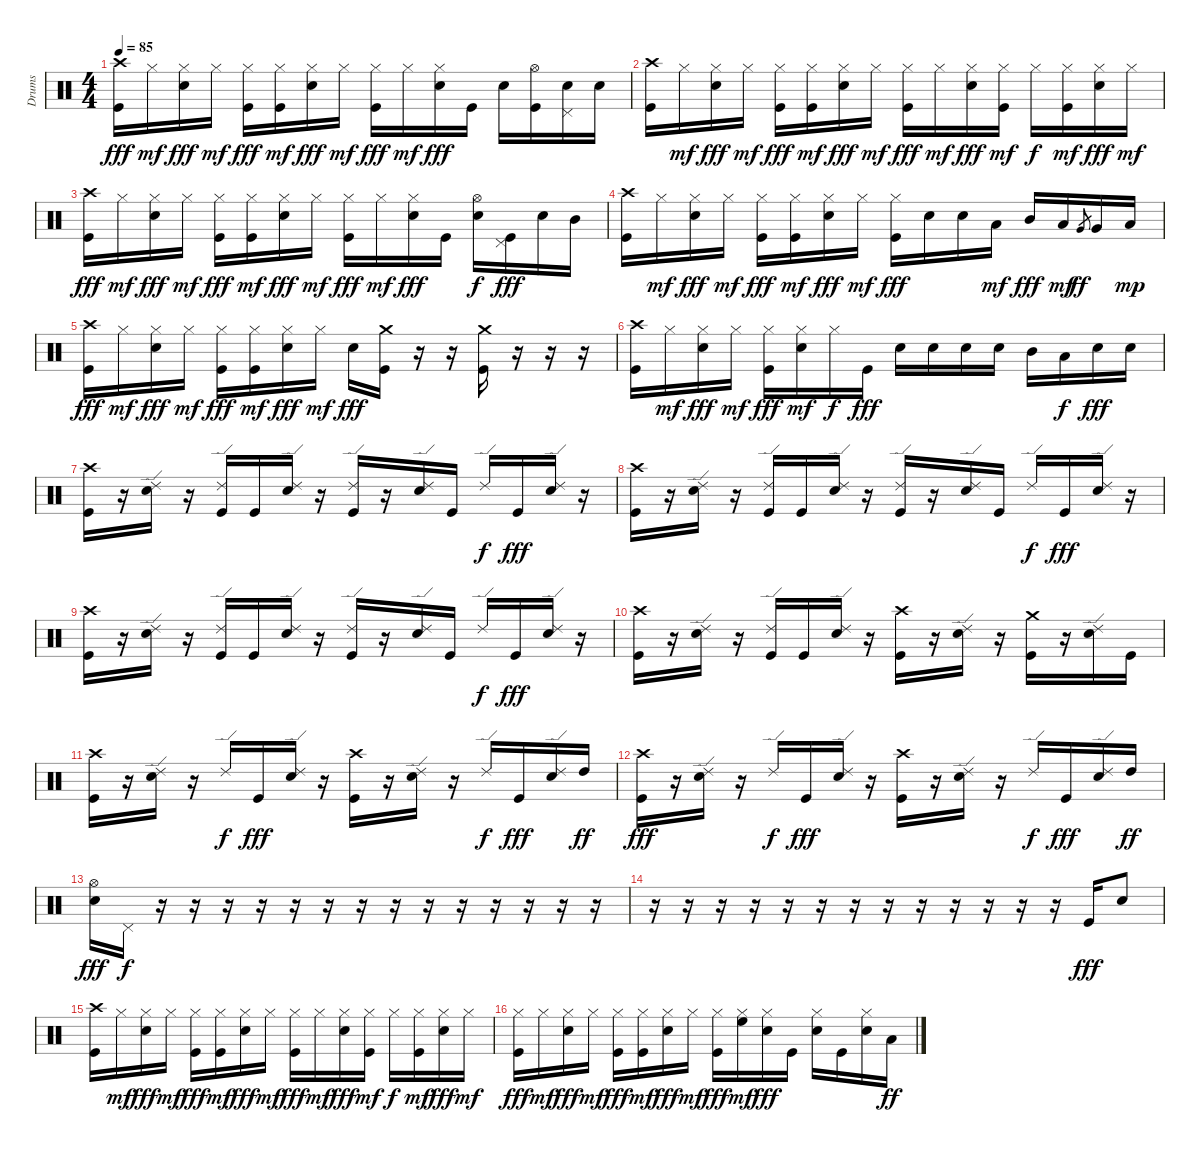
\track ("Drums" "Drums") {instrument percussion}
\staff {score}
\articulation defaults
\ts (4 4)
\tempo 85
\clef neutral
\ks c
("Kick (hit)" "Crash high (hit)").16{dy fff} "Hi-Hat (closed)".16{dy mf} ("Electric Snare (hit)" "Hi-Hat (closed)").16{dy fff} "Hi-Hat (closed)".16{dy mf} ("Kick (hit)" "Hi-Hat (closed)").16{dy fff} ("Kick (hit)" "Hi-Hat (closed)").16{dy mf} ("Electric Snare (hit)" "Hi-Hat (closed)").16{dy fff} "Hi-Hat (closed)".16{dy mf} ("Kick (hit)" "Hi-Hat (closed)").16{dy fff} "Hi-Hat (closed)".16{dy mf} ("Electric Snare (hit)" "Hi-Hat (closed)").16{dy fff} "Kick (hit)".16 "Electric Snare (hit)".16 ("Kick (hit)" "Hi-Hat (open)").16 ("Electric Snare (hit)" "Pedal Hi-Hat (hit)").16 "Electric Snare (hit)".16 |
("Kick (hit)" "Crash high (hit)").16 "Hi-Hat (closed)".16{dy mf} ("Electric Snare (hit)" "Hi-Hat (closed)").16{dy fff} "Hi-Hat (closed)".16{dy mf} ("Kick (hit)" "Hi-Hat (closed)").16{dy fff} ("Kick (hit)" "Hi-Hat (closed)").16{dy mf} ("Electric Snare (hit)" "Hi-Hat (closed)").16{dy fff} "Hi-Hat (closed)".16{dy mf} ("Kick (hit)" "Hi-Hat (closed)").16{dy fff} "Hi-Hat (closed)".16{dy mf} ("Electric Snare (hit)" "Hi-Hat (closed)").16{dy fff} ("Kick (hit)" "Hi-Hat (closed)").16{dy mf} "Hi-Hat (closed)".16{dy f} ("Kick (hit)" "Hi-Hat (closed)").16{dy mf} ("Electric Snare (hit)" "Hi-Hat (closed)").16{dy fff} "Hi-Hat (closed)".16{dy mf} |
("Kick (hit)" "Crash high (hit)").16{dy fff} "Hi-Hat (closed)".16{dy mf} ("Electric Snare (hit)" "Hi-Hat (closed)").16{dy fff} "Hi-Hat (closed)".16{dy mf} ("Kick (hit)" "Hi-Hat (closed)").16{dy fff} ("Kick (hit)" "Hi-Hat (closed)").16{dy mf} ("Electric Snare (hit)" "Hi-Hat (closed)").16{dy fff} "Hi-Hat (closed)".16{dy mf} ("Kick (hit)" "Hi-Hat (closed)").16{dy fff} "Hi-Hat (closed)".16{dy mf} ("Electric Snare (hit)" "Hi-Hat (closed)").16{dy fff} "Kick (hit)".16 ("Electric Snare (hit)" "Hi-Hat (open)").16{dy f} ("Kick (hit)" "Pedal Hi-Hat (hit)").16{dy fff} "Electric Snare (hit)".16 "Mid Tom (hit)".16 |
("Kick (hit)" "Crash high (hit)").16 "Hi-Hat (closed)".16{dy mf} ("Electric Snare (hit)" "Hi-Hat (closed)").16{dy fff} "Hi-Hat (closed)".16{dy mf} ("Kick (hit)" "Hi-Hat (closed)").16{dy fff} ("Kick (hit)" "Hi-Hat (closed)").16{dy mf} ("Electric Snare (hit)" "Hi-Hat (closed)").16{dy fff} "Hi-Hat (closed)".16{dy mf} ("Kick (hit)" "Hi-Hat (closed)").16{dy fff} "Electric Snare (hit)".16 "Electric Snare (hit)".16 "Low Tom (hit)".16{dy mf} "Mid Tom (hit)".16{dy fff} "Low Tom (hit)".16{dy mf} "Very Low Tom (hit)".8{gr dy ff} "Very Low Tom (hit)".16 "Low Floor Tom (hit)".16{dy mp} |
("Kick (hit)" "Crash high (hit)").16{dy fff} "Hi-Hat (closed)".16{dy mf} ("Electric Snare (hit)" "Hi-Hat (closed)").16{dy fff} "Hi-Hat (closed)".16{dy mf} ("Kick (hit)" "Hi-Hat (closed)").16{dy fff} ("Kick (hit)" "Hi-Hat (closed)").16{dy mf} ("Electric Snare (hit)" "Hi-Hat (closed)").16{dy fff} "Hi-Hat (closed)".16{dy mf} "Electric Snare (hit)".16{dy fff} ("Kick (hit)" "Crash medium (hit)").16 r.16 r.16 ("Kick (hit)" "Crash medium (hit)").16 r.16 r.16 r.16 |
("Kick (hit)" "Crash high (hit)").16 "Hi-Hat (closed)".16{dy mf} ("Electric Snare (hit)" "Hi-Hat (closed)").16{dy fff} "Hi-Hat (closed)".16{dy mf} ("Kick (hit)" "Hi-Hat (closed)").16{dy fff} ("Electric Snare (hit)" "Hi-Hat (closed)").16{dy mf} "Hi-Hat (closed)".16{dy f} "Kick (hit)".16{dy fff} "Electric Snare (hit)".16 "Electric Snare (hit)".16 "Electric Snare (hit)".16 "Electric Snare (hit)".16 "Mid Tom (hit)".16 "Low Floor Tom (hit)".16{dy f} "Electric Snare (hit)".16{dy fff} "Electric Snare (hit)".16 |
("Kick (hit)" "Crash high (hit)").16 r.16 ("Electric Snare (hit)" "Ride (edge) 2").16 r.16 ("Kick (hit)" "Ride (edge) 2").16 "Kick (hit)".16 ("Electric Snare (hit)" "Ride (edge) 2").16 r.16 ("Kick (hit)" "Ride (edge) 2").16 r.16 ("Electric Snare (hit)" "Ride (edge) 2").16 "Kick (hit)".16 "Ride (edge) 2".16{dy f} "Kick (hit)".16{dy fff} ("Electric Snare (hit)" "Ride (edge) 2").16 r.16 |
("Kick (hit)" "Crash high (hit)").16 r.16 ("Electric Snare (hit)" "Ride (edge) 2").16 r.16 ("Kick (hit)" "Ride (edge) 2").16 "Kick (hit)".16 ("Electric Snare (hit)" "Ride (edge) 2").16 r.16 ("Kick (hit)" "Ride (edge) 2").16 r.16 ("Electric Snare (hit)" "Ride (edge) 2").16 "Kick (hit)".16 "Ride (edge) 2".16{dy f} "Kick (hit)".16{dy fff} ("Electric Snare (hit)" "Ride (edge) 2").16 r.16 |
("Kick (hit)" "Crash high (hit)").16 r.16 ("Electric Snare (hit)" "Ride (edge) 2").16 r.16 ("Kick (hit)" "Ride (edge) 2").16 "Kick (hit)".16 ("Electric Snare (hit)" "Ride (edge) 2").16 r.16 ("Kick (hit)" "Ride (edge) 2").16 r.16 ("Electric Snare (hit)" "Ride (edge) 2").16 "Kick (hit)".16 "Ride (edge) 2".16{dy f} "Kick (hit)".16{dy fff} ("Electric Snare (hit)" "Ride (edge) 2").16 r.16 |
("Kick (hit)" "Crash high (hit)").16 r.16 ("Electric Snare (hit)" "Ride (edge) 2").16 r.16 ("Kick (hit)" "Ride (edge) 2").16 "Kick (hit)".16 ("Electric Snare (hit)" "Ride (edge) 2").16 r.16 ("Kick (hit)" "Crash high (hit)").16 r.16 ("Electric Snare (hit)" "Ride (edge) 2").16 r.16 ("Kick (hit)" "Crash medium (hit)").16 r.16 ("Electric Snare (hit)" "Ride (edge) 2").16 "Kick (hit)".16 |
("Kick (hit)" "Crash high (hit)").16 r.16 ("Electric Snare (hit)" "Ride (edge) 2").16 r.16 "Ride (edge) 2".16{dy f} "Kick (hit)".16{dy fff} ("Electric Snare (hit)" "Ride (edge) 2").16 r.16 ("Kick (hit)" "Crash high (hit)").16 r.16 ("Electric Snare (hit)" "Ride (edge) 2").16 r.16 "Ride (edge) 2".16{dy f} "Kick (hit)".16{dy fff} ("Electric Snare (hit)" "Ride (edge) 2").16 "High Tom (hit)".16{dy ff} |
("Kick (hit)" "Crash high (hit)").16{dy fff} r.16 ("Electric Snare (hit)" "Ride (edge) 2").16 r.16 "Ride (edge) 2".16{dy f} "Kick (hit)".16{dy fff} ("Electric Snare (hit)" "Ride (edge) 2").16 r.16 ("Kick (hit)" "Crash high (hit)").16 r.16 ("Electric Snare (hit)" "Ride (edge) 2").16 r.16 "Ride (edge) 2".16{dy f} "Kick (hit)".16{dy fff} ("Electric Snare (hit)" "Ride (edge) 2").16 "High Tom (hit)".16{dy ff} |
("Electric Snare (hit)" "Hi-Hat (open)").16{dy fff} "Pedal Hi-Hat (hit)".16{dy f} r.16 r.16 r.16 r.16 r.16 r.16 r.16 r.16 r.16 r.16 r.16 r.16 r.16 r.16 |
r.16 r.16 r.16 r.16 r.16 r.16 r.16 r.16 r.16 r.16 r.16 r.16 r.16 "Kick (hit)".16{dy fff} "Electric Snare (hit)".8 |
("Kick (hit)" "Crash high (hit)").16 "Hi-Hat (closed)".16{dy mf} ("Electric Snare (hit)" "Hi-Hat (closed)").16{dy fff} "Hi-Hat (closed)".16{dy mf} ("Kick (hit)" "Hi-Hat (closed)").16{dy fff} ("Kick (hit)" "Hi-Hat (closed)").16{dy mf} ("Electric Snare (hit)" "Hi-Hat (closed)").16{dy fff} "Hi-Hat (closed)".16{dy mf} ("Kick (hit)" "Hi-Hat (closed)").16{dy fff} "Hi-Hat (closed)".16{dy mf} ("Electric Snare (hit)" "Hi-Hat (closed)").16{dy fff} ("Kick (hit)" "Hi-Hat (closed)").16{dy mf} "Hi-Hat (closed)".16{dy f} ("Kick (hit)" "Hi-Hat (closed)").16{dy mf} ("Electric Snare (hit)" "Hi-Hat (closed)").16{dy fff} "Hi-Hat (closed)".16{dy mf} |
("Kick (hit)" "Hi-Hat (closed)").16{dy fff} "Hi-Hat (closed)".16{dy mf} ("Electric Snare (hit)" "Hi-Hat (closed)").16{dy fff} "Hi-Hat (closed)".16{dy mf} ("Kick (hit)" "Hi-Hat (closed)").16{dy fff} ("Kick (hit)" "Hi-Hat (closed)").16{dy mf} ("Electric Snare (hit)" "Hi-Hat (closed)").16{dy fff} "Hi-Hat (closed)".16{dy mf} ("Kick (hit)" "Hi-Hat (closed)").16{dy fff} ("High Floor Tom (hit)" "Hi-Hat (closed)").16{dy mf} ("Electric Snare (hit)" "Hi-Hat (closed)").16{dy fff} "Kick (hit)".16 ("Electric Snare (hit)" "Hi-Hat (closed)").16 "Kick (hit)".16 ("Electric Snare (hit)" "Hi-Hat (closed)").16 "Low Floor Tom (hit)".16{dy ff}
